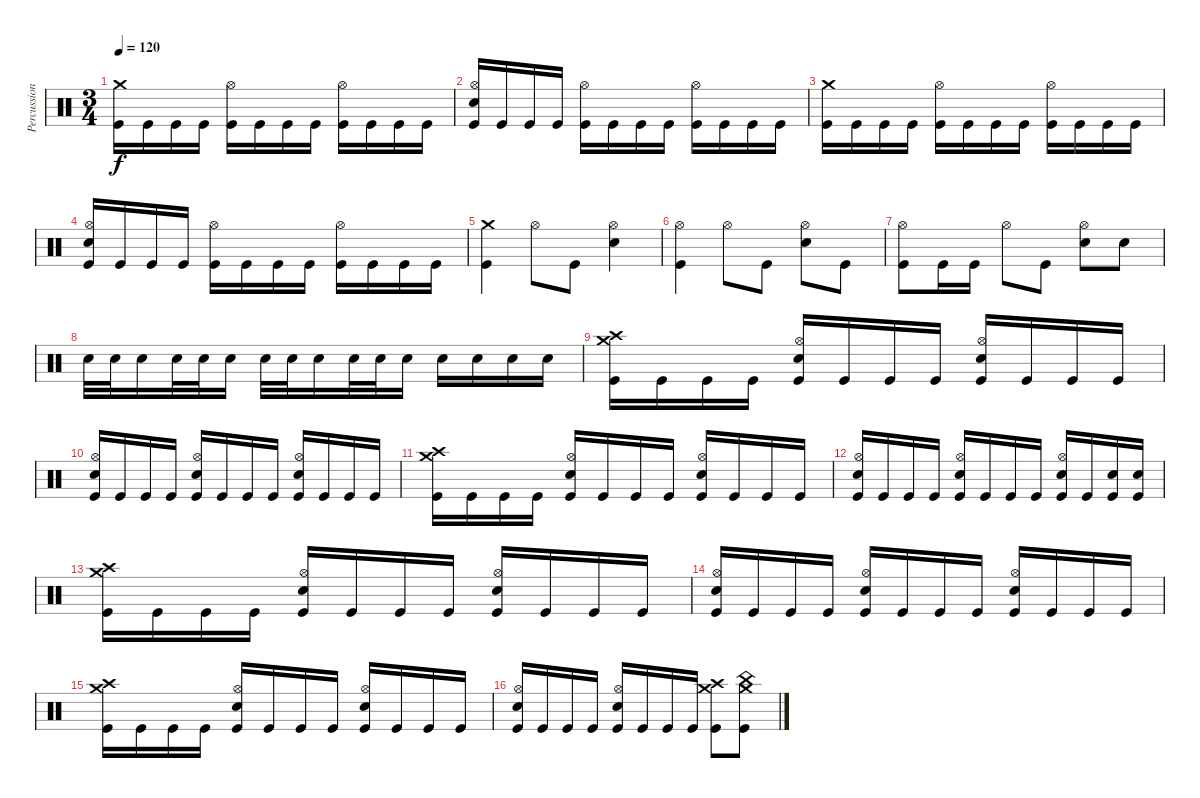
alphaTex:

\track ("Percussion" "Percussion") {instrument percussion}
\staff {score}
\articulation defaults
\ts (3 4)
\tempo 120
\clef neutral
\ks c
("Crash medium (hit)" "Kick (hit)").16{dy f} "Kick (hit)".16 "Kick (hit)".16 "Kick (hit)".16 ("Hi-Hat (open)" "Kick (hit)").16 "Kick (hit)".16 "Kick (hit)".16 "Kick (hit)".16 ("Hi-Hat (open)" "Kick (hit)").16 "Kick (hit)".16 "Kick (hit)".16 "Kick (hit)".16 |
("Hi-Hat (open)" "Snare (hit) 2" "Kick (hit)").16 "Kick (hit)".16 "Kick (hit)".16 "Kick (hit)".16 ("Hi-Hat (open)" "Kick (hit)").16 "Kick (hit)".16 "Kick (hit)".16 "Kick (hit)".16 ("Hi-Hat (open)" "Kick (hit)").16 "Kick (hit)".16 "Kick (hit)".16 "Kick (hit)".16 |
("Crash medium (hit)" "Kick (hit)").16 "Kick (hit)".16 "Kick (hit)".16 "Kick (hit)".16 ("Hi-Hat (open)" "Kick (hit)").16 "Kick (hit)".16 "Kick (hit)".16 "Kick (hit)".16 ("Hi-Hat (open)" "Kick (hit)").16 "Kick (hit)".16 "Kick (hit)".16 "Kick (hit)".16 |
("Hi-Hat (open)" "Snare (hit) 2" "Kick (hit)").16 "Kick (hit)".16 "Kick (hit)".16 "Kick (hit)".16 ("Hi-Hat (open)" "Kick (hit)").16 "Kick (hit)".16 "Kick (hit)".16 "Kick (hit)".16 ("Hi-Hat (open)" "Kick (hit)").16 "Kick (hit)".16 "Kick (hit)".16 "Kick (hit)".16 |
("Crash medium (hit)" "Kick (hit)").4 "Hi-Hat (open)".8 "Kick (hit)".8 ("Hi-Hat (open)" "Snare (hit) 2").4 |
("Hi-Hat (open)" "Kick (hit)").4 "Hi-Hat (open)".8 "Kick (hit)".8 ("Hi-Hat (open)" "Snare (hit) 2").8 "Kick (hit)".8 |
("Hi-Hat (open)" "Kick (hit)").8 "Kick (hit)".16 "Kick (hit)".16 "Hi-Hat (open)".8 "Kick (hit)".8 ("Hi-Hat (open)" "Snare (hit) 2").8 "Snare (hit) 2".8 |
"Snare (hit) 2".32 "Snare (hit) 2".32 "Snare (hit) 2".16 "Snare (hit) 2".32 "Snare (hit) 2".32 "Snare (hit) 2".16 "Snare (hit) 2".32 "Snare (hit) 2".32 "Snare (hit) 2".16 "Snare (hit) 2".32 "Snare (hit) 2".32 "Snare (hit) 2".16 "Snare (hit) 2".16 "Snare (hit) 2".16 "Snare (hit) 2".16 "Snare (hit) 2".16 |
("Crash medium (hit)" "Crash high (hit)" "Kick (hit)").16 "Kick (hit)".16 "Kick (hit)".16 "Kick (hit)".16 ("Hi-Hat (open)" "Snare (hit) 2" "Kick (hit)").16 "Kick (hit)".16 "Kick (hit)".16 "Kick (hit)".16 ("Hi-Hat (open)" "Snare (hit) 2" "Kick (hit)").16 "Kick (hit)".16 "Kick (hit)".16 "Kick (hit)".16 |
("Hi-Hat (open)" "Snare (hit) 2" "Kick (hit)").16 "Kick (hit)".16 "Kick (hit)".16 "Kick (hit)".16 ("Hi-Hat (open)" "Snare (hit) 2" "Kick (hit)").16 "Kick (hit)".16 "Kick (hit)".16 "Kick (hit)".16 ("Hi-Hat (open)" "Snare (hit) 2" "Kick (hit)").16 "Kick (hit)".16 "Kick (hit)".16 "Kick (hit)".16 |
("Crash medium (hit)" "Crash high (hit)" "Kick (hit)").16 "Kick (hit)".16 "Kick (hit)".16 "Kick (hit)".16 ("Hi-Hat (open)" "Snare (hit) 2" "Kick (hit)").16 "Kick (hit)".16 "Kick (hit)".16 "Kick (hit)".16 ("Hi-Hat (open)" "Snare (hit) 2" "Kick (hit)").16 "Kick (hit)".16 "Kick (hit)".16 "Kick (hit)".16 |
("Hi-Hat (open)" "Snare (hit) 2" "Kick (hit)").16 "Kick (hit)".16 "Kick (hit)".16 "Kick (hit)".16 ("Hi-Hat (open)" "Snare (hit) 2" "Kick (hit)").16 "Kick (hit)".16 "Kick (hit)".16 "Kick (hit)".16 ("Hi-Hat (open)" "Snare (hit) 2" "Kick (hit)").16 "Kick (hit)".16 ("Snare (hit) 2" "Kick (hit)").16 ("Snare (hit) 2" "Kick (hit)").16 |
("Crash medium (hit)" "Crash high (hit)" "Kick (hit)").16 "Kick (hit)".16 "Kick (hit)".16 "Kick (hit)".16 ("Hi-Hat (open)" "Snare (hit) 2" "Kick (hit)").16 "Kick (hit)".16 "Kick (hit)".16 "Kick (hit)".16 ("Hi-Hat (open)" "Snare (hit) 2" "Kick (hit)").16 "Kick (hit)".16 "Kick (hit)".16 "Kick (hit)".16 |
("Hi-Hat (open)" "Snare (hit) 2" "Kick (hit)").16 "Kick (hit)".16 "Kick (hit)".16 "Kick (hit)".16 ("Hi-Hat (open)" "Snare (hit) 2" "Kick (hit)").16 "Kick (hit)".16 "Kick (hit)".16 "Kick (hit)".16 ("Hi-Hat (open)" "Snare (hit) 2" "Kick (hit)").16 "Kick (hit)".16 "Kick (hit)".16 "Kick (hit)".16 |
("Crash medium (hit)" "Crash high (hit)" "Kick (hit)").16 "Kick (hit)".16 "Kick (hit)".16 "Kick (hit)".16 ("Hi-Hat (open)" "Snare (hit) 2" "Kick (hit)").16 "Kick (hit)".16 "Kick (hit)".16 "Kick (hit)".16 ("Hi-Hat (open)" "Snare (hit) 2" "Kick (hit)").16 "Kick (hit)".16 "Kick (hit)".16 "Kick (hit)".16 |
("Hi-Hat (open)" "Snare (hit) 2" "Kick (hit)").16 "Kick (hit)".16 "Kick (hit)".16 "Kick (hit)".16 ("Hi-Hat (open)" "Snare (hit) 2" "Kick (hit)").16 "Kick (hit)".16 "Kick (hit)".16 "Kick (hit)".16 ("Crash medium (hit)" "Crash high (hit)" "Kick (hit)").8 ("Crash medium (hit)" "China (hit)" "Kick (hit)").8
